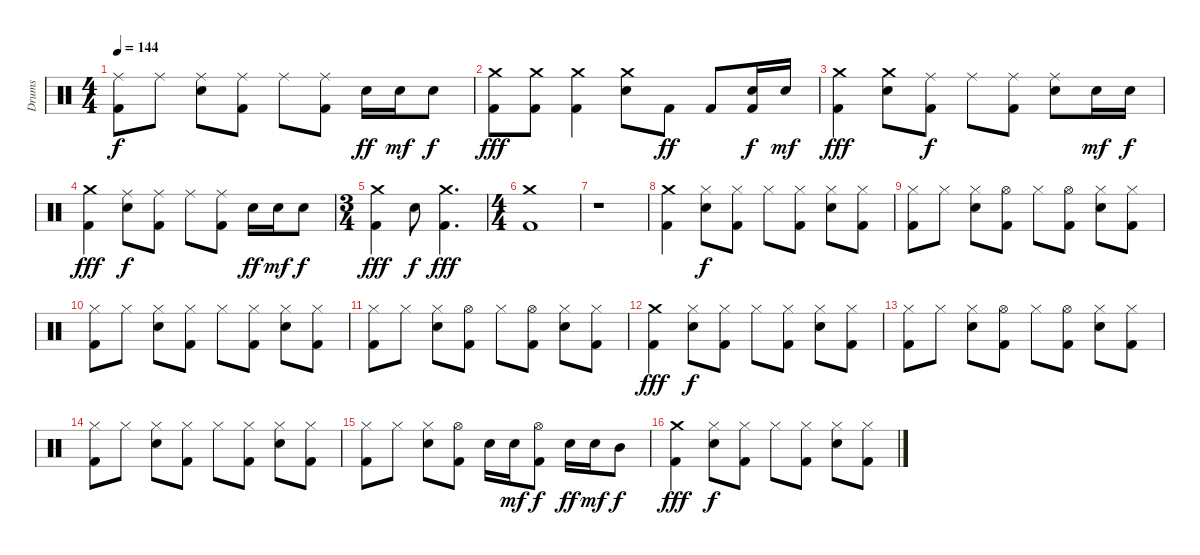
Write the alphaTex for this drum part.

\bracketExtendMode groupsimilarinstruments
\otherSystemsTrackNameOrientation horizontal
\track ("Drumkit" "Drums") {instrument percussion}
\staff {score}
\articulation defaults
\ts (4 4)
\tempo 144
\clef neutral
\ks c
("Ride (middle)" "Kick (hit) 2").8{dy f beam Down} "Ride (middle)".8{beam Down} ("Ride (middle)" "Snare (hit) 2").8{beam Down} ("Ride (middle)" "Kick (hit) 2").8{beam Down} "Ride (middle)".8{beam Down} ("Ride (middle)" "Kick (hit) 2").8{beam Down} "Snare (hit) 2".16{dy ff beam Down} "Snare (hit) 2".16{dy mf beam Down} "Snare (hit) 2".8{dy f beam Down} |
("Crash medium (hit)" "Kick (hit) 2").8{dy fff beam Down} ("Crash medium (hit)" "Kick (hit) 2").8{beam Down} ("Crash medium (hit)" "Kick (hit) 2").4{beam Down} ("Crash medium (hit)" "Snare (hit) 2").8{beam Down} "Kick (hit) 2".8{dy ff beam Down} "Kick (hit) 2".8{beam Up} ("Snare (hit) 2" "Kick (hit) 2").16{dy f beam Up} "Snare (hit) 2".16{dy mf beam Up} |
("Crash medium (hit)" "Kick (hit) 2").4{dy fff beam Down} ("Crash medium (hit)" "Snare (hit) 2").8{beam Down} ("Ride (middle)" "Kick (hit) 2").8{dy f beam Down} "Ride (middle)".8{beam Down} ("Ride (middle)" "Kick (hit) 2").8{beam Down} ("Ride (middle)" "Snare (hit) 2").8{beam Down} "Snare (hit) 2".16{dy mf beam Down} "Snare (hit) 2".16{dy f beam Down} |
("Crash medium (hit)" "Kick (hit) 2").4{dy fff beam Down} ("Ride (middle)" "Snare (hit) 2").8{dy f beam Down} ("Ride (middle)" "Kick (hit) 2").8{beam Down} "Ride (middle)".8{beam Down} ("Ride (middle)" "Kick (hit) 2").8{beam Down} "Snare (hit) 2".16{dy ff beam Down} "Snare (hit) 2".16{dy mf beam Down} "Snare (hit) 2".8{dy f beam Down} |
\ts (3 4)
("Crash medium (hit)" "Kick (hit) 2").4{dy fff beam Down} "Snare (hit) 2".8{dy f beam Down} ("Crash medium (hit)" "Kick (hit) 2").4{d dy fff beam Down} |
\ts (4 4)
("Crash medium (hit)" "Kick (hit) 2").1{beam Down} |
r.1{beam Down} |
("Crash medium (hit)" "Kick (hit) 2").4{beam Down} ("Hi-Hat (closed)" "Snare (hit) 2").8{dy f beam Down} ("Hi-Hat (closed)" "Kick (hit) 2").8{beam Down} "Hi-Hat (closed)".8{beam Down} ("Hi-Hat (closed)" "Kick (hit) 2").8{beam Down} ("Hi-Hat (closed)" "Snare (hit) 2").8{beam Down} ("Hi-Hat (closed)" "Kick (hit) 2").8{beam Down} |
("Hi-Hat (closed)" "Kick (hit) 2").8{beam Down} "Hi-Hat (closed)".8{beam Down} ("Hi-Hat (closed)" "Snare (hit) 2").8{beam Down} ("Hi-Hat (open)" "Kick (hit) 2").8{beam Down} "Hi-Hat (closed)".8{beam Down} ("Hi-Hat (open)" "Kick (hit) 2").8{beam Down} ("Hi-Hat (closed)" "Snare (hit) 2").8{beam Down} ("Hi-Hat (closed)" "Kick (hit) 2").8{beam Down} |
("Hi-Hat (closed)" "Kick (hit) 2").8{beam Down} "Hi-Hat (closed)".8{beam Down} ("Hi-Hat (closed)" "Snare (hit) 2").8{beam Down} ("Hi-Hat (closed)" "Kick (hit) 2").8{beam Down} "Hi-Hat (closed)".8{beam Down} ("Hi-Hat (closed)" "Kick (hit) 2").8{beam Down} ("Hi-Hat (closed)" "Snare (hit) 2").8{beam Down} ("Hi-Hat (closed)" "Kick (hit) 2").8{beam Down} |
("Hi-Hat (closed)" "Kick (hit) 2").8{beam Down} "Hi-Hat (closed)".8{beam Down} ("Hi-Hat (closed)" "Snare (hit) 2").8{beam Down} ("Hi-Hat (open)" "Kick (hit) 2").8{beam Down} "Hi-Hat (closed)".8{beam Down} ("Hi-Hat (open)" "Kick (hit) 2").8{beam Down} ("Hi-Hat (closed)" "Snare (hit) 2").8{beam Down} ("Hi-Hat (closed)" "Kick (hit) 2").8{beam Down} |
("Crash medium (hit)" "Kick (hit) 2").4{dy fff beam Down} ("Hi-Hat (closed)" "Snare (hit) 2").8{dy f beam Down} ("Hi-Hat (closed)" "Kick (hit) 2").8{beam Down} "Hi-Hat (closed)".8{beam Down} ("Hi-Hat (closed)" "Kick (hit) 2").8{beam Down} ("Hi-Hat (closed)" "Snare (hit) 2").8{beam Down} ("Hi-Hat (closed)" "Kick (hit) 2").8{beam Down} |
("Hi-Hat (closed)" "Kick (hit) 2").8{beam Down} "Hi-Hat (closed)".8{beam Down} ("Hi-Hat (closed)" "Snare (hit) 2").8{beam Down} ("Hi-Hat (open)" "Kick (hit) 2").8{beam Down} "Hi-Hat (closed)".8{beam Down} ("Hi-Hat (open)" "Kick (hit) 2").8{beam Down} ("Hi-Hat (closed)" "Snare (hit) 2").8{beam Down} ("Hi-Hat (closed)" "Kick (hit) 2").8{beam Down} |
("Hi-Hat (closed)" "Kick (hit) 2").8{beam Down} "Hi-Hat (closed)".8{beam Down} ("Hi-Hat (closed)" "Snare (hit) 2").8{beam Down} ("Hi-Hat (closed)" "Kick (hit) 2").8{beam Down} "Hi-Hat (closed)".8{beam Down} ("Hi-Hat (closed)" "Kick (hit) 2").8{beam Down} ("Hi-Hat (closed)" "Snare (hit) 2").8{beam Down} ("Hi-Hat (closed)" "Kick (hit) 2").8{beam Down} |
("Hi-Hat (closed)" "Kick (hit) 2").8{beam Down} "Hi-Hat (closed)".8{beam Down} ("Hi-Hat (closed)" "Snare (hit) 2").8{beam Down} ("Hi-Hat (open)" "Kick (hit) 2").8{beam Down} "Snare (hit) 2".16{beam Down} "Snare (hit) 2".16{dy mf beam Down} ("Hi-Hat (open)" "Kick (hit) 2").8{dy f beam Down} "Snare (hit) 2".16{dy ff beam Down} "Snare (hit) 2".16{dy mf beam Down} "Mid Tom (hit)".8{dy f beam Down} |
("Crash medium (hit)" "Kick (hit) 2").4{dy fff beam Down} ("Hi-Hat (closed)" "Snare (hit) 2").8{dy f beam Down} ("Hi-Hat (closed)" "Kick (hit) 2").8{beam Down} "Hi-Hat (closed)".8{beam Down} ("Hi-Hat (closed)" "Kick (hit) 2").8{beam Down} ("Hi-Hat (closed)" "Snare (hit) 2").8{beam Down} ("Hi-Hat (closed)" "Kick (hit) 2").8{beam Down}
